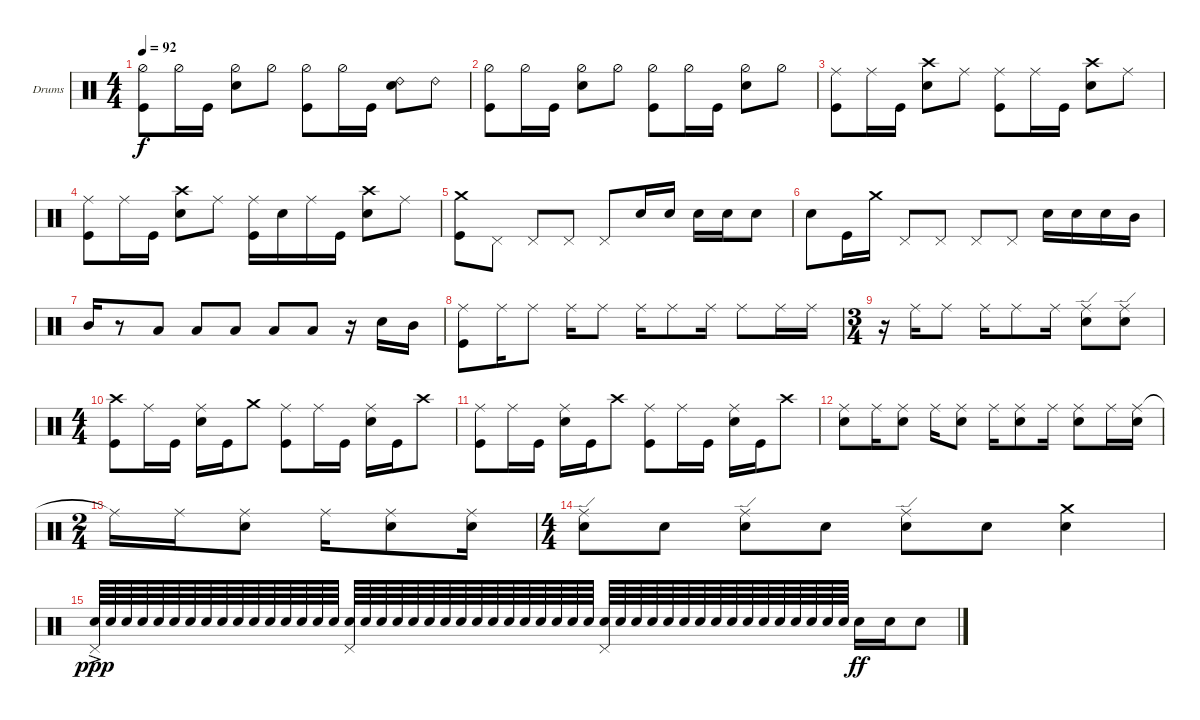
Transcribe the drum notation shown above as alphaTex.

\defaultSystemsLayout 4
\bracketExtendMode groupsimilarinstruments
\firstSystemTrackNameOrientation horizontal
\otherSystemsTrackNameOrientation horizontal
\track ("Drumkit (Collins)" "Drums") {instrument percussion}
\staff {score}
\articulation defaults
\ts (4 4)
\tempo 92
\clef neutral
\ks c
("Kick (hit)" "Hi-Hat (half)").8{dy f} "Hi-Hat (half)".16 "Kick (hit)".16 ("Hi-Hat (half)" "Snare (hit) 2").8 "Hi-Hat (half)".8 ("Kick (hit)" "Hi-Hat (half)").8 "Hi-Hat (half)".16 "Kick (hit)".16 ("Snare (hit) 2" "Ride (bell) 2").8 "Ride (bell) 2".8 |
("Kick (hit)" "Hi-Hat (half)").8 "Hi-Hat (half)".16 "Kick (hit)".16 ("Hi-Hat (half)" "Snare (hit) 2").8 "Hi-Hat (half)".8 ("Kick (hit)" "Hi-Hat (half)").8 "Hi-Hat (half)".16 "Kick (hit)".16 ("Hi-Hat (half)" "Snare (hit) 2").8 "Hi-Hat (half)".8 |
("Kick (hit)" "Ride (middle)").8 "Ride (middle)".16 "Kick (hit)".16 ("Snare (hit) 2" "Crash high (hit)").8 "Ride (middle)".8 ("Kick (hit)" "Ride (middle)").8 "Ride (middle)".16 "Kick (hit)".16 ("Snare (hit) 2" "Crash high (hit)").8 "Ride (middle)".8 |
("Kick (hit)" "Ride (middle)").8 "Ride (middle)".16 "Kick (hit)".16 ("Snare (hit) 2" "Crash high (hit)").8 "Ride (middle)".8 ("Kick (hit)" "Ride (middle)").16 "Snare (hit) 2".16 "Ride (middle)".16 "Kick (hit)".16 ("Snare (hit) 2" "Crash high (hit)").8 "Ride (middle)".8 |
("Kick (hit)" "Crash medium (hit)").8 "Pedal Hi-Hat (hit)".8 "Pedal Hi-Hat (hit)".8 "Pedal Hi-Hat (hit)".8 "Pedal Hi-Hat (hit)".8 "Snare (hit) 2".16 "Snare (hit) 2".16 "Snare (hit) 2".16 "Snare (hit) 2".16 "Snare (hit) 2".8 |
"Snare (hit) 2".8 "Kick (hit)".16 "Crash medium (hit)".16 "Pedal Hi-Hat (hit)".8 "Pedal Hi-Hat (hit)".8 "Pedal Hi-Hat (hit)".8 "Pedal Hi-Hat (hit)".8 "Snare (hit) 2".16 "Snare (hit) 2".16 "Snare (hit) 2".16 "Mid Tom (hit)".16 |
"Mid Tom (hit)".16 r.8 "Low Tom (hit)".8 "Low Tom (hit)".8 "Low Tom (hit)".8 "Low Tom (hit)".8 "Low Tom (hit)".8 r.16 "Snare (hit) 2".16 "Mid Tom (hit)".16 |
("Kick (hit)" "Ride (middle)").8 "Ride (middle)".16 "Ride (middle)".8 "Ride (middle)".16 "Ride (middle)".8 "Ride (middle)".16 "Ride (middle)".8 "Ride (middle)".16 "Ride (middle)".8 "Ride (middle)".16 "Ride (middle)".16 |
\ts (3 4)
r.16 "Ride (middle)".16 "Ride (middle)".8 "Ride (middle)".16 "Ride (middle)".8 "Ride (middle)".16 ("Ride (edge)" "Snare (hit) 2").8 ("Ride (edge)" "Snare (hit) 2").8 |
\ts (4 4)
("Crash high (hit)" "Kick (hit)").8 "Ride (middle)".16 "Kick (hit)".16 ("Snare (hit) 2" "Ride (middle)").16 "Kick (hit)".16 "Crash medium (hit)".8 ("Kick (hit)" "Ride (middle)").8 "Ride (middle)".16 "Kick (hit)".16 ("Snare (hit) 2" "Ride (middle)").16 "Kick (hit)".16 "Crash high (hit)".8 |
("Kick (hit)" "Ride (middle)").8 "Ride (middle)".16 "Kick (hit)".16 ("Snare (hit) 2" "Ride (middle)").16 "Kick (hit)".16 "Crash high (hit)".8 ("Kick (hit)" "Ride (middle)").8 "Ride (middle)".16 "Kick (hit)".16 ("Snare (hit) 2" "Ride (middle)").16 "Kick (hit)".16 "Crash high (hit)".8 |
("Ride (middle)" "Snare (hit) 2").8 "Ride (middle)".16 ("Ride (middle)" "Snare (hit) 2").8 "Ride (middle)".16 ("Ride (middle)" "Snare (hit) 2").8 "Ride (middle)".16 ("Ride (middle)" "Snare (hit) 2").8 "Ride (middle)".16 ("Ride (middle)" "Snare (hit) 2").8 "Ride (middle)".16 ("Ride (middle)" "Snare (hit) 2").16 |
\ts (2 4)
"Ride (middle)"{t}.16 "Ride (middle)".16 ("Ride (middle)" "Snare (hit) 2").8 "Ride (middle)".16 ("Ride (middle)" "Snare (hit) 2").8 ("Ride (middle)" "Snare (hit) 2").16 |
\ts (4 4)
("Snare (hit) 2" "Ride (edge)").8 "Snare (hit) 2".8 ("Snare (hit) 2" "Ride (edge)").8 "Snare (hit) 2".8 ("Snare (hit) 2" "Ride (edge)").8 "Snare (hit) 2".8 ("Snare (hit) 2" "Crash medium (hit)").4 |
("Snare (hit) 2"{ac} "Pedal Hi-Hat (hit)").64{dy ppp} "Snare (hit) 2".64 "Snare (hit) 2".64 "Snare (hit) 2".64 "Snare (hit) 2".64 "Snare (hit) 2".64 "Snare (hit) 2".64 "Snare (hit) 2".64 "Snare (hit) 2".64 "Snare (hit) 2".64 "Snare (hit) 2".64 "Snare (hit) 2".64 "Snare (hit) 2".64 "Snare (hit) 2".64 "Snare (hit) 2".64 "Snare (hit) 2".64 ("Snare (hit) 2" "Pedal Hi-Hat (hit)").64 "Snare (hit) 2".64 "Snare (hit) 2".64 "Snare (hit) 2".64 "Snare (hit) 2".64 "Snare (hit) 2".64 "Snare (hit) 2".64 "Snare (hit) 2".64 "Snare (hit) 2".64 "Snare (hit) 2".64 "Snare (hit) 2".64 "Snare (hit) 2".64 "Snare (hit) 2".64 "Snare (hit) 2".64 "Snare (hit) 2".64 "Snare (hit) 2".64 ("Snare (hit) 2" "Pedal Hi-Hat (hit)").64 "Snare (hit) 2".64 "Snare (hit) 2".64 "Snare (hit) 2".64 "Snare (hit) 2".64 "Snare (hit) 2".64 "Snare (hit) 2".64 "Snare (hit) 2".64 "Snare (hit) 2".64 "Snare (hit) 2".64 "Snare (hit) 2".64 "Snare (hit) 2".64 "Snare (hit) 2".64 "Snare (hit) 2".64 "Snare (hit) 2".64 "Snare (hit) 2".64 "Snare (hit) 2".16{dy ff} "Snare (hit) 2".16 "Snare (hit) 2".8
